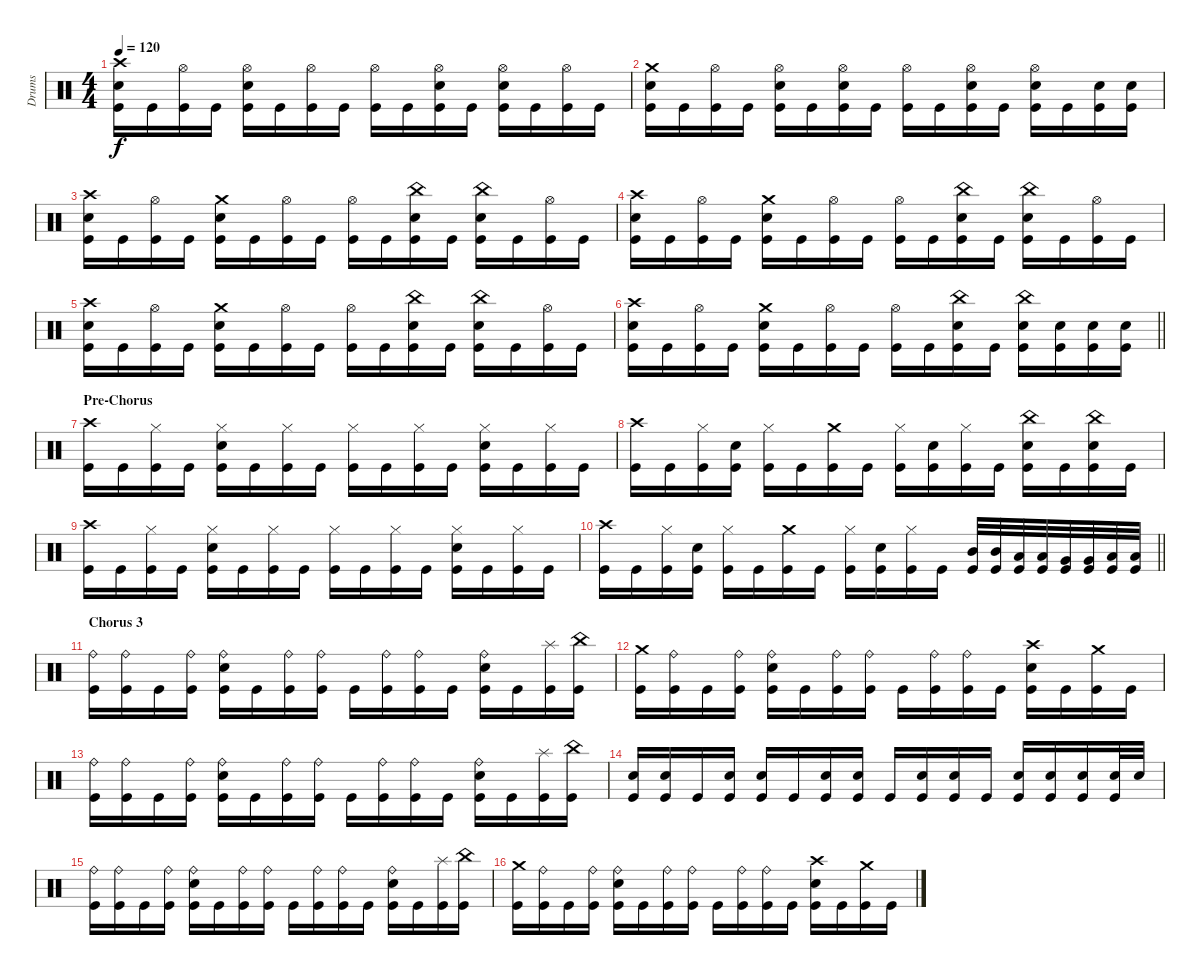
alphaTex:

\track ("Drums" "Drums") {instrument percussion}
\staff {score}
\articulation defaults
\ts (4 4)
\tempo 120
\clef neutral
\ks c
("Kick (hit)" "Crash high (hit)" "Snare (hit) 2").16{dy f} "Kick (hit)".16 ("Kick (hit)" "Hi-Hat (open)").16 "Kick (hit)".16 ("Kick (hit)" "Hi-Hat (open)" "Snare (hit) 2").16 "Kick (hit)".16 ("Kick (hit)" "Hi-Hat (open)").16 "Kick (hit)".16 ("Kick (hit)" "Hi-Hat (open)").16 "Kick (hit)".16 ("Kick (hit)" "Hi-Hat (open)" "Snare (hit) 2").16 "Kick (hit)".16 ("Kick (hit)" "Hi-Hat (open)" "Snare (hit) 2").16 "Kick (hit)".16 ("Kick (hit)" "Hi-Hat (open)").16 "Kick (hit)".16 |
("Kick (hit)" "Crash medium (hit)" "Snare (hit) 2").16 "Kick (hit)".16 ("Kick (hit)" "Hi-Hat (open)").16 "Kick (hit)".16 ("Kick (hit)" "Hi-Hat (open)" "Snare (hit) 2").16 "Kick (hit)".16 ("Kick (hit)" "Hi-Hat (open)" "Snare (hit) 2").16 "Kick (hit)".16 ("Kick (hit)" "Hi-Hat (open)").16 "Kick (hit)".16 ("Kick (hit)" "Hi-Hat (open)" "Snare (hit) 2").16 "Kick (hit)".16 ("Kick (hit)" "Hi-Hat (open)" "Snare (hit) 2").16 "Kick (hit)".16 ("Kick (hit)" "Snare (hit) 2").16 ("Kick (hit)" "Snare (hit) 2").16 |
("Kick (hit)" "Crash high (hit)" "Snare (hit) 2").16 "Kick (hit)".16 ("Kick (hit)" "Hi-Hat (open)").16 "Kick (hit)".16 ("Kick (hit)" "Crash medium (hit)" "Snare (hit) 2").16 "Kick (hit)".16 ("Kick (hit)" "Hi-Hat (open)").16 "Kick (hit)".16 ("Kick (hit)" "Hi-Hat (open)").16 "Kick (hit)".16 ("Kick (hit)" "China (hit)" "Snare (hit) 2").16 "Kick (hit)".16 ("Kick (hit)" "China (hit)" "Snare (hit) 2").16 "Kick (hit)".16 ("Kick (hit)" "Hi-Hat (open)").16 "Kick (hit)".16 |
("Kick (hit)" "Crash high (hit)" "Snare (hit) 2").16 "Kick (hit)".16 ("Kick (hit)" "Hi-Hat (open)").16 "Kick (hit)".16 ("Kick (hit)" "Crash medium (hit)" "Snare (hit) 2").16 "Kick (hit)".16 ("Kick (hit)" "Hi-Hat (open)").16 "Kick (hit)".16 ("Kick (hit)" "Hi-Hat (open)").16 "Kick (hit)".16 ("Kick (hit)" "China (hit)" "Snare (hit) 2").16 "Kick (hit)".16 ("Kick (hit)" "China (hit)" "Snare (hit) 2").16 "Kick (hit)".16 ("Kick (hit)" "Hi-Hat (open)").16 "Kick (hit)".16 |
("Kick (hit)" "Crash high (hit)" "Snare (hit) 2").16 "Kick (hit)".16 ("Kick (hit)" "Hi-Hat (open)").16 "Kick (hit)".16 ("Kick (hit)" "Crash medium (hit)" "Snare (hit) 2").16 "Kick (hit)".16 ("Kick (hit)" "Hi-Hat (open)").16 "Kick (hit)".16 ("Kick (hit)" "Hi-Hat (open)").16 "Kick (hit)".16 ("Kick (hit)" "China (hit)" "Snare (hit) 2").16 "Kick (hit)".16 ("Kick (hit)" "China (hit)" "Snare (hit) 2").16 "Kick (hit)".16 ("Kick (hit)" "Hi-Hat (open)").16 "Kick (hit)".16 |
\barLineRight lightlight
("Kick (hit)" "Crash high (hit)" "Snare (hit) 2").16 "Kick (hit)".16 ("Kick (hit)" "Hi-Hat (open)").16 "Kick (hit)".16 ("Kick (hit)" "Crash medium (hit)" "Snare (hit) 2").16 "Kick (hit)".16 ("Kick (hit)" "Hi-Hat (open)").16 "Kick (hit)".16 ("Kick (hit)" "Hi-Hat (open)").16 "Kick (hit)".16 ("Kick (hit)" "China (hit)" "Snare (hit) 2").16 "Kick (hit)".16 ("Kick (hit)" "China (hit)" "Snare (hit) 2").16 ("Kick (hit)" "Snare (hit) 2").16 ("Kick (hit)" "Snare (hit) 2").16 ("Kick (hit)" "Snare (hit) 2").16 |
\section ("" "Pre-Chorus")
("Crash high (hit)" "Kick (hit)").16 "Kick (hit)".16 ("Hi-Hat (closed)" "Kick (hit)").16 "Kick (hit)".16 ("Hi-Hat (closed)" "Snare (hit) 2" "Kick (hit)").16 "Kick (hit)".16 ("Hi-Hat (closed)" "Kick (hit)").16 "Kick (hit)".16 ("Hi-Hat (closed)" "Kick (hit)").16 "Kick (hit)".16 ("Hi-Hat (closed)" "Kick (hit)").16 "Kick (hit)".16 ("Hi-Hat (closed)" "Snare (hit) 2" "Kick (hit)").16 "Kick (hit)".16 ("Hi-Hat (closed)" "Kick (hit)").16 "Kick (hit)".16 |
("Crash high (hit)" "Kick (hit)").16 "Kick (hit)".16 ("Hi-Hat (closed)" "Kick (hit)").16 ("Snare (hit) 2" "Kick (hit)").16 ("Hi-Hat (closed)" "Kick (hit)").16 "Kick (hit)".16 ("Crash medium (hit)" "Kick (hit)").16 "Kick (hit)".16 ("Hi-Hat (closed)" "Kick (hit)").16 ("Snare (hit) 2" "Kick (hit)").16 ("Hi-Hat (closed)" "Kick (hit)").16 "Kick (hit)".16 ("China (hit)" "Snare (hit) 2" "Kick (hit)").16 "Kick (hit)".16 ("China (hit)" "Snare (hit) 2" "Kick (hit)").16 "Kick (hit)".16 |
("Crash high (hit)" "Kick (hit)").16 "Kick (hit)".16 ("Hi-Hat (closed)" "Kick (hit)").16 "Kick (hit)".16 ("Hi-Hat (closed)" "Snare (hit) 2" "Kick (hit)").16 "Kick (hit)".16 ("Hi-Hat (closed)" "Kick (hit)").16 "Kick (hit)".16 ("Hi-Hat (closed)" "Kick (hit)").16 "Kick (hit)".16 ("Hi-Hat (closed)" "Kick (hit)").16 "Kick (hit)".16 ("Hi-Hat (closed)" "Snare (hit) 2" "Kick (hit)").16 "Kick (hit)".16 ("Hi-Hat (closed)" "Kick (hit)").16 "Kick (hit)".16 |
\barLineRight lightlight
("Crash high (hit)" "Kick (hit)").16 "Kick (hit)".16 ("Hi-Hat (closed)" "Kick (hit)").16 ("Snare (hit) 2" "Kick (hit)").16 ("Hi-Hat (closed)" "Kick (hit)").16 "Kick (hit)".16 ("Crash medium (hit)" "Kick (hit)").16 "Kick (hit)".16 ("Hi-Hat (closed)" "Kick (hit)").16 ("Snare (hit) 2" "Kick (hit)").16 ("Hi-Hat (closed)" "Kick (hit)").16 "Kick (hit)".16 ("Mid Tom (hit)" "Kick (hit)").32 ("Mid Tom (hit)" "Kick (hit)").32 ("Low Tom (hit)" "Kick (hit)").32 ("Low Tom (hit)" "Kick (hit)").32 ("Very Low Tom (hit)" "Kick (hit)").32 ("Very Low Tom (hit)" "Kick (hit)").32 ("Low Floor Tom (hit)" "Kick (hit)").32 ("Low Floor Tom (hit)" "Kick (hit)").32 |
\section ("" "Chorus 3")
("Ride (bell)" "Kick (hit)").16 ("Ride (bell)" "Kick (hit)").16 "Kick (hit)".16 ("Ride (bell)" "Kick (hit)").16 ("Ride (bell)" "Snare (hit) 2" "Kick (hit)").16 "Kick (hit)".16 ("Ride (bell)" "Kick (hit)").16 ("Ride (bell)" "Kick (hit)").16 "Kick (hit)".16 ("Ride (bell)" "Kick (hit)").16 ("Ride (bell)" "Kick (hit)").16 "Kick (hit)".16 ("Ride (bell)" "Snare (hit) 2" "Kick (hit)").16 "Kick (hit)".16 ("Splash (hit)" "Kick (hit)").16 ("China (hit)" "Kick (hit)").16 |
("Crash medium (hit)" "Kick (hit)").16 ("Ride (bell)" "Kick (hit)").16 "Kick (hit)".16 ("Ride (bell)" "Kick (hit)").16 ("Ride (bell)" "Snare (hit) 2" "Kick (hit)").16 "Kick (hit)".16 ("Ride (bell)" "Kick (hit)").16 ("Ride (bell)" "Kick (hit)").16 "Kick (hit)".16 ("Ride (bell)" "Kick (hit)").16 ("Ride (bell)" "Kick (hit)").16 "Kick (hit)".16 ("Crash high (hit)" "Snare (hit) 2" "Kick (hit)").16 "Kick (hit)".16 ("Crash medium (hit)" "Kick (hit)").16 "Kick (hit)".16 |
("Ride (bell)" "Kick (hit)").16 ("Ride (bell)" "Kick (hit)").16 "Kick (hit)".16 ("Ride (bell)" "Kick (hit)").16 ("Ride (bell)" "Snare (hit) 2" "Kick (hit)").16 "Kick (hit)".16 ("Ride (bell)" "Kick (hit)").16 ("Ride (bell)" "Kick (hit)").16 "Kick (hit)".16 ("Ride (bell)" "Kick (hit)").16 ("Ride (bell)" "Kick (hit)").16 "Kick (hit)".16 ("Ride (bell)" "Snare (hit) 2" "Kick (hit)").16 "Kick (hit)".16 ("Splash (hit)" "Kick (hit)").16 ("China (hit)" "Kick (hit)").16 |
("Snare (hit) 2" "Kick (hit)").16 ("Snare (hit) 2" "Kick (hit)").16 "Kick (hit)".16 ("Snare (hit) 2" "Kick (hit)").16 ("Snare (hit) 2" "Kick (hit)").16 "Kick (hit)".16 ("Snare (hit) 2" "Kick (hit)").16 ("Snare (hit) 2" "Kick (hit)").16 "Kick (hit)".16 ("Snare (hit) 2" "Kick (hit)").16 ("Snare (hit) 2" "Kick (hit)").16 "Kick (hit)".16 ("Snare (hit) 2" "Kick (hit)").16 ("Snare (hit) 2" "Kick (hit)").16 ("Snare (hit) 2" "Kick (hit)").16 ("Snare (hit) 2" "Kick (hit)").32 "Snare (hit) 2".32 |
("Ride (bell)" "Kick (hit)").16 ("Ride (bell)" "Kick (hit)").16 "Kick (hit)".16 ("Ride (bell)" "Kick (hit)").16 ("Ride (bell)" "Snare (hit) 2" "Kick (hit)").16 "Kick (hit)".16 ("Ride (bell)" "Kick (hit)").16 ("Ride (bell)" "Kick (hit)").16 "Kick (hit)".16 ("Ride (bell)" "Kick (hit)").16 ("Ride (bell)" "Kick (hit)").16 "Kick (hit)".16 ("Ride (bell)" "Snare (hit) 2" "Kick (hit)").16 "Kick (hit)".16 ("Splash (hit)" "Kick (hit)").16 ("China (hit)" "Kick (hit)").16 |
("Crash medium (hit)" "Kick (hit)").16 ("Ride (bell)" "Kick (hit)").16 "Kick (hit)".16 ("Ride (bell)" "Kick (hit)").16 ("Ride (bell)" "Snare (hit) 2" "Kick (hit)").16 "Kick (hit)".16 ("Ride (bell)" "Kick (hit)").16 ("Ride (bell)" "Kick (hit)").16 "Kick (hit)".16 ("Ride (bell)" "Kick (hit)").16 ("Ride (bell)" "Kick (hit)").16 "Kick (hit)".16 ("Crash high (hit)" "Snare (hit) 2" "Kick (hit)").16 "Kick (hit)".16 ("Crash medium (hit)" "Kick (hit)").16 "Kick (hit)".16
